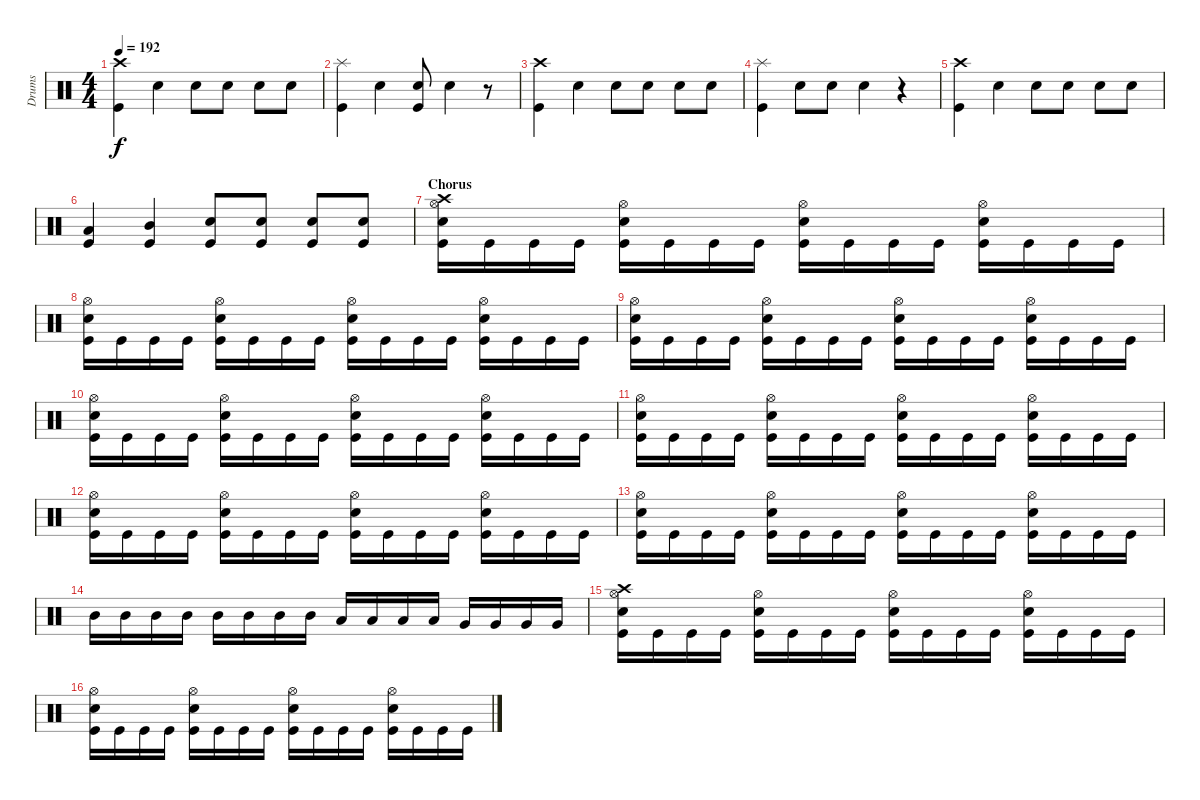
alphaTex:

\track ("Drums" "Drums") {instrument percussion}
\staff {score}
\articulation defaults
\ts (4 4)
\tempo 192
\clef neutral
\ks c
("Crash high (hit)" "Kick (hit)").4{dy f} "Snare (hit) 2".4 "Snare (hit) 2".8 "Snare (hit) 2".8 "Snare (hit) 2".8 "Snare (hit) 2".8 |
("Splash (hit)" "Kick (hit)").4 "Snare (hit) 2"{tr (38 16)}.4 ("Snare (hit) 2" "Kick (hit)").8 "Snare (hit) 2".4 r.8 |
("Crash high (hit)" "Kick (hit)").4 "Snare (hit) 2".4 "Snare (hit) 2".8 "Snare (hit) 2".8 "Snare (hit) 2".8 "Snare (hit) 2".8 |
("Splash (hit)" "Kick (hit)").4 "Snare (hit) 2".8 "Snare (hit) 2".8 "Snare (hit) 2".4 r.4 |
("Crash high (hit)" "Kick (hit)").4 "Snare (hit) 2"{tr (38 16)}.4 "Snare (hit) 2".8 "Snare (hit) 2".8 "Snare (hit) 2".8 "Snare (hit) 2".8 |
("Low Tom (hit)" "Kick (hit)").4 ("Mid Tom (hit)" "Kick (hit)").4 ("Snare (hit) 2" "Kick (hit)").8 ("Snare (hit) 2" "Kick (hit)").8 ("Snare (hit) 2" "Kick (hit)").8 ("Snare (hit) 2" "Kick (hit)").8 |
\section ("" "Chorus")
("Crash high (hit)" "Hi-Hat (open)" "Snare (hit) 2" "Kick (hit)").16 "Kick (hit)".16 "Kick (hit)".16 "Kick (hit)".16 ("Hi-Hat (open)" "Snare (hit) 2" "Kick (hit)").16 "Kick (hit)".16 "Kick (hit)".16 "Kick (hit)".16 ("Hi-Hat (open)" "Snare (hit) 2" "Kick (hit)").16 "Kick (hit)".16 "Kick (hit)".16 "Kick (hit)".16 ("Hi-Hat (open)" "Snare (hit) 2" "Kick (hit)").16 "Kick (hit)".16 "Kick (hit)".16 "Kick (hit)".16 |
("Hi-Hat (open)" "Snare (hit) 2" "Kick (hit)").16 "Kick (hit)".16 "Kick (hit)".16 "Kick (hit)".16 ("Hi-Hat (open)" "Snare (hit) 2" "Kick (hit)").16 "Kick (hit)".16 "Kick (hit)".16 "Kick (hit)".16 ("Hi-Hat (open)" "Snare (hit) 2" "Kick (hit)").16 "Kick (hit)".16 "Kick (hit)".16 "Kick (hit)".16 ("Hi-Hat (open)" "Snare (hit) 2" "Kick (hit)").16 "Kick (hit)".16 "Kick (hit)".16 "Kick (hit)".16 |
("Hi-Hat (open)" "Snare (hit) 2" "Kick (hit)").16 "Kick (hit)".16 "Kick (hit)".16 "Kick (hit)".16 ("Hi-Hat (open)" "Snare (hit) 2" "Kick (hit)").16 "Kick (hit)".16 "Kick (hit)".16 "Kick (hit)".16 ("Hi-Hat (open)" "Snare (hit) 2" "Kick (hit)").16 "Kick (hit)".16 "Kick (hit)".16 "Kick (hit)".16 ("Hi-Hat (open)" "Snare (hit) 2" "Kick (hit)").16 "Kick (hit)".16 "Kick (hit)".16 "Kick (hit)".16 |
("Hi-Hat (open)" "Snare (hit) 2" "Kick (hit)").16 "Kick (hit)".16 "Kick (hit)".16 "Kick (hit)".16 ("Hi-Hat (open)" "Snare (hit) 2" "Kick (hit)").16 "Kick (hit)".16 "Kick (hit)".16 "Kick (hit)".16 ("Hi-Hat (open)" "Snare (hit) 2" "Kick (hit)").16 "Kick (hit)".16 "Kick (hit)".16 "Kick (hit)".16 ("Hi-Hat (open)" "Snare (hit) 2" "Kick (hit)").16 "Kick (hit)".16 "Kick (hit)".16 "Kick (hit)".16 |
("Hi-Hat (open)" "Snare (hit) 2" "Kick (hit)").16 "Kick (hit)".16 "Kick (hit)".16 "Kick (hit)".16 ("Hi-Hat (open)" "Snare (hit) 2" "Kick (hit)").16 "Kick (hit)".16 "Kick (hit)".16 "Kick (hit)".16 ("Hi-Hat (open)" "Snare (hit) 2" "Kick (hit)").16 "Kick (hit)".16 "Kick (hit)".16 "Kick (hit)".16 ("Hi-Hat (open)" "Snare (hit) 2" "Kick (hit)").16 "Kick (hit)".16 "Kick (hit)".16 "Kick (hit)".16 |
("Hi-Hat (open)" "Snare (hit) 2" "Kick (hit)").16 "Kick (hit)".16 "Kick (hit)".16 "Kick (hit)".16 ("Hi-Hat (open)" "Snare (hit) 2" "Kick (hit)").16 "Kick (hit)".16 "Kick (hit)".16 "Kick (hit)".16 ("Hi-Hat (open)" "Snare (hit) 2" "Kick (hit)").16 "Kick (hit)".16 "Kick (hit)".16 "Kick (hit)".16 ("Hi-Hat (open)" "Snare (hit) 2" "Kick (hit)").16 "Kick (hit)".16 "Kick (hit)".16 "Kick (hit)".16 |
("Hi-Hat (open)" "Snare (hit) 2" "Kick (hit)").16 "Kick (hit)".16 "Kick (hit)".16 "Kick (hit)".16 ("Hi-Hat (open)" "Snare (hit) 2" "Kick (hit)").16 "Kick (hit)".16 "Kick (hit)".16 "Kick (hit)".16 ("Hi-Hat (open)" "Snare (hit) 2" "Kick (hit)").16 "Kick (hit)".16 "Kick (hit)".16 "Kick (hit)".16 ("Hi-Hat (open)" "Snare (hit) 2" "Kick (hit)").16 "Kick (hit)".16 "Kick (hit)".16 "Kick (hit)".16 |
"Mid Tom (hit)".16 "Mid Tom (hit)".16 "Mid Tom (hit)".16 "Mid Tom (hit)".16 "Mid Tom (hit)".16 "Mid Tom (hit)".16 "Mid Tom (hit)".16 "Mid Tom (hit)".16 "Low Tom (hit)".16 "Low Tom (hit)".16 "Low Tom (hit)".16 "Low Tom (hit)".16 "Very Low Tom (hit)".16 "Very Low Tom (hit)".16 "Very Low Tom (hit)".16 "Very Low Tom (hit)".16 |
("Crash high (hit)" "Hi-Hat (open)" "Snare (hit) 2" "Kick (hit)").16 "Kick (hit)".16 "Kick (hit)".16 "Kick (hit)".16 ("Hi-Hat (open)" "Snare (hit) 2" "Kick (hit)").16 "Kick (hit)".16 "Kick (hit)".16 "Kick (hit)".16 ("Hi-Hat (open)" "Snare (hit) 2" "Kick (hit)").16 "Kick (hit)".16 "Kick (hit)".16 "Kick (hit)".16 ("Hi-Hat (open)" "Snare (hit) 2" "Kick (hit)").16 "Kick (hit)".16 "Kick (hit)".16 "Kick (hit)".16 |
("Hi-Hat (open)" "Snare (hit) 2" "Kick (hit)").16 "Kick (hit)".16 "Kick (hit)".16 "Kick (hit)".16 ("Hi-Hat (open)" "Snare (hit) 2" "Kick (hit)").16 "Kick (hit)".16 "Kick (hit)".16 "Kick (hit)".16 ("Hi-Hat (open)" "Snare (hit) 2" "Kick (hit)").16 "Kick (hit)".16 "Kick (hit)".16 "Kick (hit)".16 ("Hi-Hat (open)" "Snare (hit) 2" "Kick (hit)").16 "Kick (hit)".16 "Kick (hit)".16 "Kick (hit)".16
